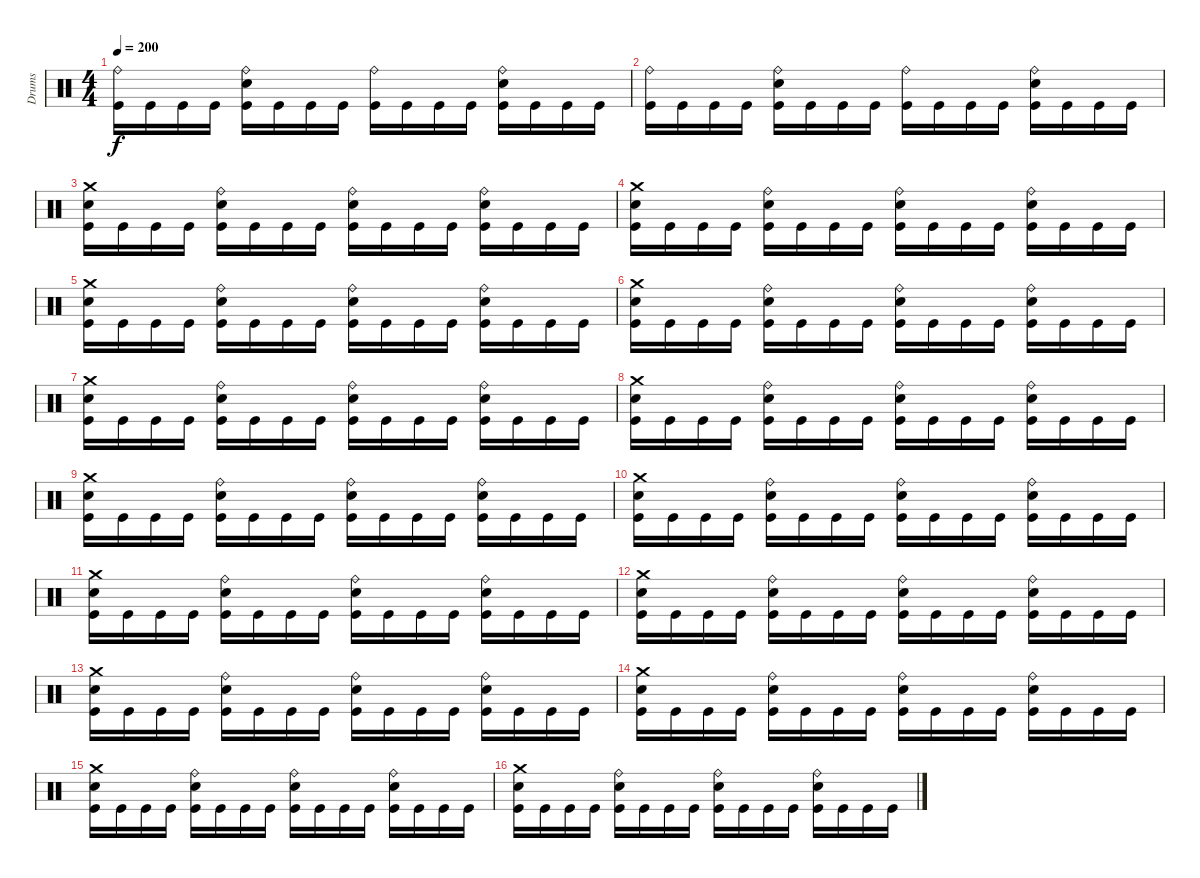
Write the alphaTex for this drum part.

\track ("Drums" "Drums") {instrument percussion}
\staff {score}
\articulation defaults
\ts (4 4)
\tempo 200
\clef neutral
\ks c
("Ride (bell)" "Kick (hit)").16{dy f} "Kick (hit)".16 "Kick (hit)".16 "Kick (hit)".16 ("Ride (bell)" "Electric Snare (hit)" "Kick (hit)").16 "Kick (hit)".16 "Kick (hit)".16 "Kick (hit)".16 ("Ride (bell)" "Kick (hit)").16 "Kick (hit)".16 "Kick (hit)".16 "Kick (hit)".16 ("Ride (bell)" "Electric Snare (hit)" "Kick (hit)").16 "Kick (hit)".16 "Kick (hit)".16 "Kick (hit)".16 |
("Ride (bell)" "Kick (hit)").16 "Kick (hit)".16 "Kick (hit)".16 "Kick (hit)".16 ("Ride (bell)" "Electric Snare (hit)" "Kick (hit)").16 "Kick (hit)".16 "Kick (hit)".16 "Kick (hit)".16 ("Ride (bell)" "Kick (hit)").16 "Kick (hit)".16 "Kick (hit)".16 "Kick (hit)".16 ("Ride (bell)" "Electric Snare (hit)" "Kick (hit)").16 "Kick (hit)".16 "Kick (hit)".16 "Kick (hit)".16 |
("Crash medium (hit)" "Electric Snare (hit)" "Kick (hit)").16 "Kick (hit)".16 "Kick (hit)".16 "Kick (hit)".16 ("Ride (bell)" "Electric Snare (hit)" "Kick (hit)").16 "Kick (hit)".16 "Kick (hit)".16 "Kick (hit)".16 ("Ride (bell)" "Electric Snare (hit)" "Kick (hit)").16 "Kick (hit)".16 "Kick (hit)".16 "Kick (hit)".16 ("Ride (bell)" "Electric Snare (hit)" "Kick (hit)").16 "Kick (hit)".16 "Kick (hit)".16 "Kick (hit)".16 |
("Crash medium (hit)" "Electric Snare (hit)" "Kick (hit)").16 "Kick (hit)".16 "Kick (hit)".16 "Kick (hit)".16 ("Ride (bell)" "Electric Snare (hit)" "Kick (hit)").16 "Kick (hit)".16 "Kick (hit)".16 "Kick (hit)".16 ("Ride (bell)" "Electric Snare (hit)" "Kick (hit)").16 "Kick (hit)".16 "Kick (hit)".16 "Kick (hit)".16 ("Ride (bell)" "Electric Snare (hit)" "Kick (hit)").16 "Kick (hit)".16 "Kick (hit)".16 "Kick (hit)".16 |
("Crash medium (hit)" "Electric Snare (hit)" "Kick (hit)").16 "Kick (hit)".16 "Kick (hit)".16 "Kick (hit)".16 ("Ride (bell)" "Electric Snare (hit)" "Kick (hit)").16 "Kick (hit)".16 "Kick (hit)".16 "Kick (hit)".16 ("Ride (bell)" "Electric Snare (hit)" "Kick (hit)").16 "Kick (hit)".16 "Kick (hit)".16 "Kick (hit)".16 ("Ride (bell)" "Electric Snare (hit)" "Kick (hit)").16 "Kick (hit)".16 "Kick (hit)".16 "Kick (hit)".16 |
("Crash medium (hit)" "Electric Snare (hit)" "Kick (hit)").16 "Kick (hit)".16 "Kick (hit)".16 "Kick (hit)".16 ("Ride (bell)" "Electric Snare (hit)" "Kick (hit)").16 "Kick (hit)".16 "Kick (hit)".16 "Kick (hit)".16 ("Ride (bell)" "Electric Snare (hit)" "Kick (hit)").16 "Kick (hit)".16 "Kick (hit)".16 "Kick (hit)".16 ("Ride (bell)" "Electric Snare (hit)" "Kick (hit)").16 "Kick (hit)".16 "Kick (hit)".16 "Kick (hit)".16 |
("Crash medium (hit)" "Electric Snare (hit)" "Kick (hit)").16 "Kick (hit)".16 "Kick (hit)".16 "Kick (hit)".16 ("Ride (bell)" "Electric Snare (hit)" "Kick (hit)").16 "Kick (hit)".16 "Kick (hit)".16 "Kick (hit)".16 ("Ride (bell)" "Electric Snare (hit)" "Kick (hit)").16 "Kick (hit)".16 "Kick (hit)".16 "Kick (hit)".16 ("Ride (bell)" "Electric Snare (hit)" "Kick (hit)").16 "Kick (hit)".16 "Kick (hit)".16 "Kick (hit)".16 |
("Crash medium (hit)" "Electric Snare (hit)" "Kick (hit)").16 "Kick (hit)".16 "Kick (hit)".16 "Kick (hit)".16 ("Ride (bell)" "Electric Snare (hit)" "Kick (hit)").16 "Kick (hit)".16 "Kick (hit)".16 "Kick (hit)".16 ("Ride (bell)" "Electric Snare (hit)" "Kick (hit)").16 "Kick (hit)".16 "Kick (hit)".16 "Kick (hit)".16 ("Ride (bell)" "Electric Snare (hit)" "Kick (hit)").16 "Kick (hit)".16 "Kick (hit)".16 "Kick (hit)".16 |
("Crash medium (hit)" "Electric Snare (hit)" "Kick (hit)").16 "Kick (hit)".16 "Kick (hit)".16 "Kick (hit)".16 ("Ride (bell)" "Electric Snare (hit)" "Kick (hit)").16 "Kick (hit)".16 "Kick (hit)".16 "Kick (hit)".16 ("Ride (bell)" "Electric Snare (hit)" "Kick (hit)").16 "Kick (hit)".16 "Kick (hit)".16 "Kick (hit)".16 ("Ride (bell)" "Electric Snare (hit)" "Kick (hit)").16 "Kick (hit)".16 "Kick (hit)".16 "Kick (hit)".16 |
("Crash medium (hit)" "Electric Snare (hit)" "Kick (hit)").16 "Kick (hit)".16 "Kick (hit)".16 "Kick (hit)".16 ("Ride (bell)" "Electric Snare (hit)" "Kick (hit)").16 "Kick (hit)".16 "Kick (hit)".16 "Kick (hit)".16 ("Ride (bell)" "Electric Snare (hit)" "Kick (hit)").16 "Kick (hit)".16 "Kick (hit)".16 "Kick (hit)".16 ("Ride (bell)" "Electric Snare (hit)" "Kick (hit)").16 "Kick (hit)".16 "Kick (hit)".16 "Kick (hit)".16 |
("Crash medium (hit)" "Electric Snare (hit)" "Kick (hit)").16 "Kick (hit)".16 "Kick (hit)".16 "Kick (hit)".16 ("Ride (bell)" "Electric Snare (hit)" "Kick (hit)").16 "Kick (hit)".16 "Kick (hit)".16 "Kick (hit)".16 ("Ride (bell)" "Electric Snare (hit)" "Kick (hit)").16 "Kick (hit)".16 "Kick (hit)".16 "Kick (hit)".16 ("Ride (bell)" "Electric Snare (hit)" "Kick (hit)").16 "Kick (hit)".16 "Kick (hit)".16 "Kick (hit)".16 |
("Crash medium (hit)" "Electric Snare (hit)" "Kick (hit)").16 "Kick (hit)".16 "Kick (hit)".16 "Kick (hit)".16 ("Ride (bell)" "Electric Snare (hit)" "Kick (hit)").16 "Kick (hit)".16 "Kick (hit)".16 "Kick (hit)".16 ("Ride (bell)" "Electric Snare (hit)" "Kick (hit)").16 "Kick (hit)".16 "Kick (hit)".16 "Kick (hit)".16 ("Ride (bell)" "Electric Snare (hit)" "Kick (hit)").16 "Kick (hit)".16 "Kick (hit)".16 "Kick (hit)".16 |
("Crash medium (hit)" "Electric Snare (hit)" "Kick (hit)").16 "Kick (hit)".16 "Kick (hit)".16 "Kick (hit)".16 ("Ride (bell)" "Electric Snare (hit)" "Kick (hit)").16 "Kick (hit)".16 "Kick (hit)".16 "Kick (hit)".16 ("Ride (bell)" "Electric Snare (hit)" "Kick (hit)").16 "Kick (hit)".16 "Kick (hit)".16 "Kick (hit)".16 ("Ride (bell)" "Electric Snare (hit)" "Kick (hit)").16 "Kick (hit)".16 "Kick (hit)".16 "Kick (hit)".16 |
("Crash medium (hit)" "Electric Snare (hit)" "Kick (hit)").16 "Kick (hit)".16 "Kick (hit)".16 "Kick (hit)".16 ("Ride (bell)" "Electric Snare (hit)" "Kick (hit)").16 "Kick (hit)".16 "Kick (hit)".16 "Kick (hit)".16 ("Ride (bell)" "Electric Snare (hit)" "Kick (hit)").16 "Kick (hit)".16 "Kick (hit)".16 "Kick (hit)".16 ("Ride (bell)" "Electric Snare (hit)" "Kick (hit)").16 "Kick (hit)".16 "Kick (hit)".16 "Kick (hit)".16 |
("Crash medium (hit)" "Electric Snare (hit)" "Kick (hit)").16 "Kick (hit)".16 "Kick (hit)".16 "Kick (hit)".16 ("Ride (bell)" "Electric Snare (hit)" "Kick (hit)").16 "Kick (hit)".16 "Kick (hit)".16 "Kick (hit)".16 ("Ride (bell)" "Electric Snare (hit)" "Kick (hit)").16 "Kick (hit)".16 "Kick (hit)".16 "Kick (hit)".16 ("Ride (bell)" "Electric Snare (hit)" "Kick (hit)").16 "Kick (hit)".16 "Kick (hit)".16 "Kick (hit)".16 |
("Crash medium (hit)" "Electric Snare (hit)" "Kick (hit)").16 "Kick (hit)".16 "Kick (hit)".16 "Kick (hit)".16 ("Ride (bell)" "Electric Snare (hit)" "Kick (hit)").16 "Kick (hit)".16 "Kick (hit)".16 "Kick (hit)".16 ("Ride (bell)" "Electric Snare (hit)" "Kick (hit)").16 "Kick (hit)".16 "Kick (hit)".16 "Kick (hit)".16 ("Ride (bell)" "Electric Snare (hit)" "Kick (hit)").16 "Kick (hit)".16 "Kick (hit)".16 "Kick (hit)".16
